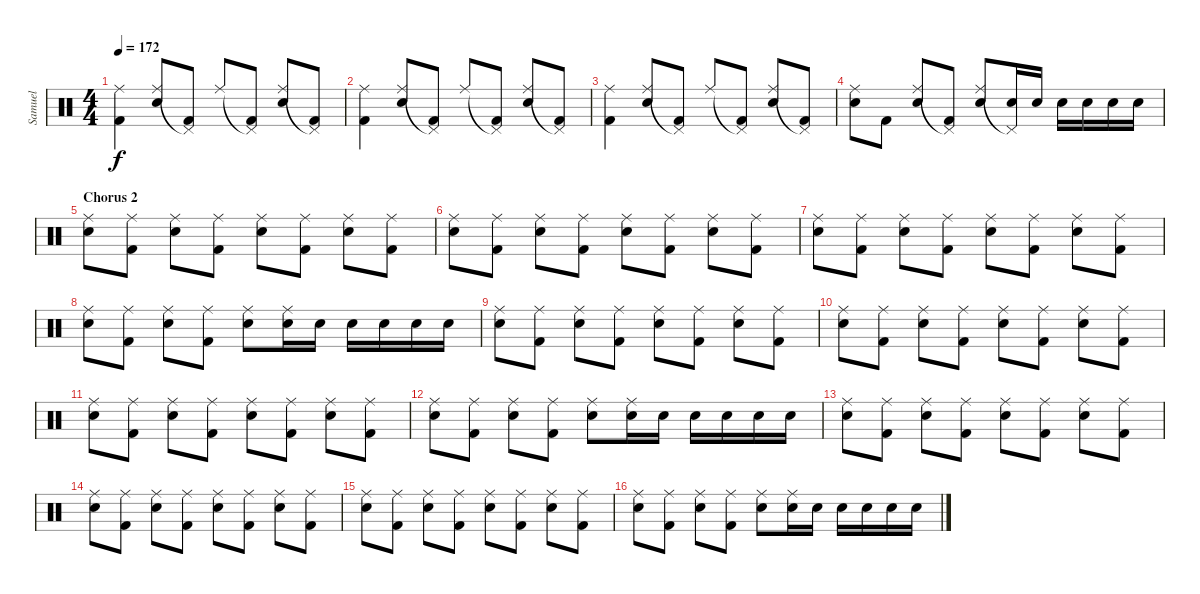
\track ("Samuel" "Samuel") {instrument percussion}
\staff {score}
\articulation defaults
\ts (4 4)
\tempo 172
\clef neutral
\ks c
("Ride (middle)" "Kick (hit) 2").4{dy f} ("Ride (middle)" "Snare (hit) 2").8 ("Pedal Hi-Hat (hit)"{t} "Kick (hit) 2").8 "Ride (middle)".8 ("Pedal Hi-Hat (hit)"{t} "Kick (hit) 2").8 ("Ride (middle)" "Snare (hit) 2").8 ("Pedal Hi-Hat (hit)"{t} "Kick (hit) 2").8 |
("Ride (middle)" "Kick (hit) 2").4 ("Ride (middle)" "Snare (hit) 2").8 ("Pedal Hi-Hat (hit)"{t} "Kick (hit) 2").8 "Ride (middle)".8 ("Pedal Hi-Hat (hit)"{t} "Kick (hit) 2").8 ("Ride (middle)" "Snare (hit) 2").8 ("Pedal Hi-Hat (hit)"{t} "Kick (hit) 2").8 |
("Ride (middle)" "Kick (hit) 2").4 ("Ride (middle)" "Snare (hit) 2").8 ("Pedal Hi-Hat (hit)"{t} "Kick (hit) 2").8 "Ride (middle)".8 ("Pedal Hi-Hat (hit)"{t} "Kick (hit) 2").8 ("Ride (middle)" "Snare (hit) 2").8 ("Pedal Hi-Hat (hit)"{t} "Kick (hit) 2").8 |
("Ride (middle)" "Snare (hit) 2").8 "Kick (hit) 2".8 ("Ride (middle)" "Snare (hit) 2").8 ("Pedal Hi-Hat (hit)"{t} "Kick (hit) 2").8 ("Ride (middle)" "Snare (hit) 2").8 ("Pedal Hi-Hat (hit)"{t} "Snare (hit) 2").16 "Snare (hit) 2".16 "Snare (hit) 2".16 "Snare (hit) 2".16 "Snare (hit) 2".16 "Snare (hit) 2".16 |
\section ("" "Chorus 2")
("Ride (middle)" "Snare (hit) 2").8 ("Ride (middle)" "Kick (hit) 2").8 ("Ride (middle)" "Snare (hit) 2").8 ("Ride (middle)" "Kick (hit) 2").8 ("Ride (middle)" "Snare (hit) 2").8 ("Ride (middle)" "Kick (hit) 2").8 ("Ride (middle)" "Snare (hit) 2").8 ("Ride (middle)" "Kick (hit) 2").8 |
("Ride (middle)" "Snare (hit) 2").8 ("Ride (middle)" "Kick (hit) 2").8 ("Ride (middle)" "Snare (hit) 2").8 ("Ride (middle)" "Kick (hit) 2").8 ("Ride (middle)" "Snare (hit) 2").8 ("Ride (middle)" "Kick (hit) 2").8 ("Ride (middle)" "Snare (hit) 2").8 ("Ride (middle)" "Kick (hit) 2").8 |
("Ride (middle)" "Snare (hit) 2").8 ("Ride (middle)" "Kick (hit) 2").8 ("Ride (middle)" "Snare (hit) 2").8 ("Ride (middle)" "Kick (hit) 2").8 ("Ride (middle)" "Snare (hit) 2").8 ("Ride (middle)" "Kick (hit) 2").8 ("Ride (middle)" "Snare (hit) 2").8 ("Ride (middle)" "Kick (hit) 2").8 |
("Ride (middle)" "Snare (hit) 2").8 ("Ride (middle)" "Kick (hit) 2").8 ("Ride (middle)" "Snare (hit) 2").8 ("Ride (middle)" "Kick (hit) 2").8 ("Ride (middle)" "Snare (hit) 2").8 ("Ride (middle)" "Snare (hit) 2").16 "Snare (hit) 2".16 "Snare (hit) 2".16 "Snare (hit) 2".16 "Snare (hit) 2".16 "Snare (hit) 2".16 |
("Ride (middle)" "Snare (hit) 2").8 ("Ride (middle)" "Kick (hit) 2").8 ("Ride (middle)" "Snare (hit) 2").8 ("Ride (middle)" "Kick (hit) 2").8 ("Ride (middle)" "Snare (hit) 2").8 ("Ride (middle)" "Kick (hit) 2").8 ("Ride (middle)" "Snare (hit) 2").8 ("Ride (middle)" "Kick (hit) 2").8 |
("Ride (middle)" "Snare (hit) 2").8 ("Ride (middle)" "Kick (hit) 2").8 ("Ride (middle)" "Snare (hit) 2").8 ("Ride (middle)" "Kick (hit) 2").8 ("Ride (middle)" "Snare (hit) 2").8 ("Ride (middle)" "Kick (hit) 2").8 ("Ride (middle)" "Snare (hit) 2").8 ("Ride (middle)" "Kick (hit) 2").8 |
("Ride (middle)" "Snare (hit) 2").8 ("Ride (middle)" "Kick (hit) 2").8 ("Ride (middle)" "Snare (hit) 2").8 ("Ride (middle)" "Kick (hit) 2").8 ("Ride (middle)" "Snare (hit) 2").8 ("Ride (middle)" "Kick (hit) 2").8 ("Ride (middle)" "Snare (hit) 2").8 ("Ride (middle)" "Kick (hit) 2").8 |
("Ride (middle)" "Snare (hit) 2").8 ("Ride (middle)" "Kick (hit) 2").8 ("Ride (middle)" "Snare (hit) 2").8 ("Ride (middle)" "Kick (hit) 2").8 ("Ride (middle)" "Snare (hit) 2").8 ("Ride (middle)" "Snare (hit) 2").16 "Snare (hit) 2".16 "Snare (hit) 2".16 "Snare (hit) 2".16 "Snare (hit) 2".16 "Snare (hit) 2".16 |
("Ride (middle)" "Snare (hit) 2").8 ("Ride (middle)" "Kick (hit) 2").8 ("Ride (middle)" "Snare (hit) 2").8 ("Ride (middle)" "Kick (hit) 2").8 ("Ride (middle)" "Snare (hit) 2").8 ("Ride (middle)" "Kick (hit) 2").8 ("Ride (middle)" "Snare (hit) 2").8 ("Ride (middle)" "Kick (hit) 2").8 |
("Ride (middle)" "Snare (hit) 2").8 ("Ride (middle)" "Kick (hit) 2").8 ("Ride (middle)" "Snare (hit) 2").8 ("Ride (middle)" "Kick (hit) 2").8 ("Ride (middle)" "Snare (hit) 2").8 ("Ride (middle)" "Kick (hit) 2").8 ("Ride (middle)" "Snare (hit) 2").8 ("Ride (middle)" "Kick (hit) 2").8 |
("Ride (middle)" "Snare (hit) 2").8 ("Ride (middle)" "Kick (hit) 2").8 ("Ride (middle)" "Snare (hit) 2").8 ("Ride (middle)" "Kick (hit) 2").8 ("Ride (middle)" "Snare (hit) 2").8 ("Ride (middle)" "Kick (hit) 2").8 ("Ride (middle)" "Snare (hit) 2").8 ("Ride (middle)" "Kick (hit) 2").8 |
("Ride (middle)" "Snare (hit) 2").8 ("Ride (middle)" "Kick (hit) 2").8 ("Ride (middle)" "Snare (hit) 2").8 ("Ride (middle)" "Kick (hit) 2").8 ("Ride (middle)" "Snare (hit) 2").8 ("Ride (middle)" "Snare (hit) 2").16 "Snare (hit) 2".16 "Snare (hit) 2".16 "Snare (hit) 2".16 "Snare (hit) 2".16 "Snare (hit) 2".16
